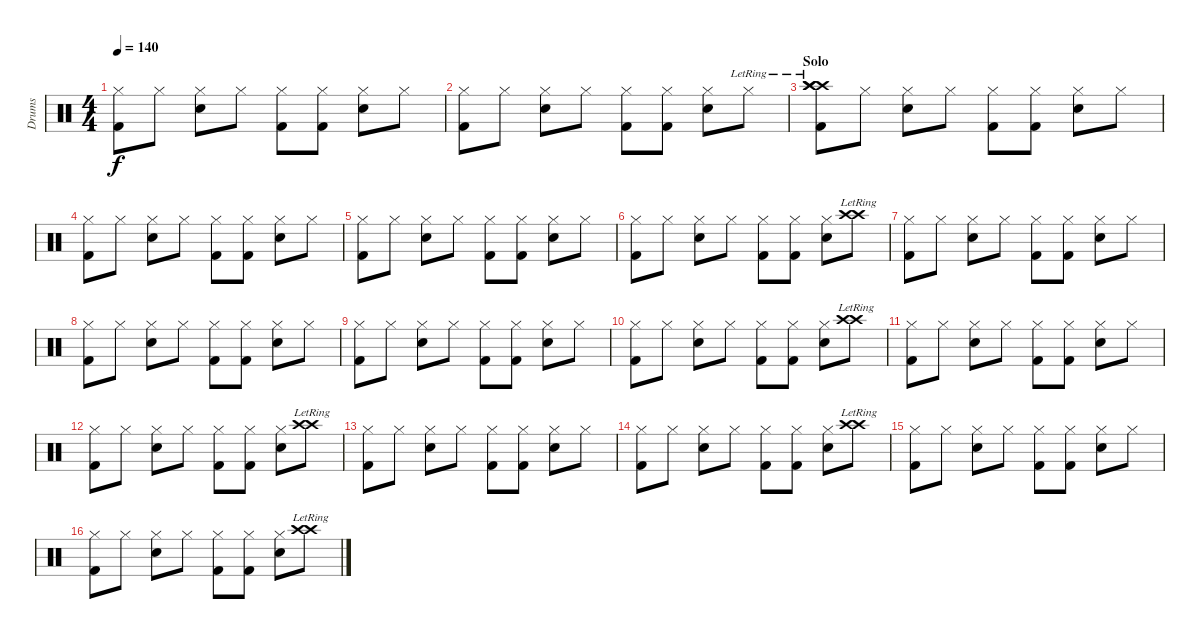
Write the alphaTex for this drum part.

\track ("Drums" "Drums") {instrument percussion}
\staff {score}
\articulation defaults
\ts (4 4)
\tempo 140
\clef neutral
\ks c
("Hi-Hat (closed)" "Kick (hit) 2").8{dy f} "Hi-Hat (closed)".8 ("Hi-Hat (closed)" "Snare (hit) 2").8 "Hi-Hat (closed)".8 ("Hi-Hat (closed)" "Kick (hit) 2").8 ("Hi-Hat (closed)" "Kick (hit) 2").8 ("Hi-Hat (closed)" "Snare (hit) 2").8 "Hi-Hat (closed)".8 |
("Hi-Hat (closed)" "Kick (hit) 2").8 "Hi-Hat (closed)".8 ("Hi-Hat (closed)" "Snare (hit) 2").8 "Hi-Hat (closed)".8 ("Hi-Hat (closed)" "Kick (hit) 2").8 ("Hi-Hat (closed)" "Kick (hit) 2").8 ("Hi-Hat (closed)" "Snare (hit) 2").8 "Hi-Hat (closed)"{lr}.8 |
\section ("" "Solo")
("Crash high (hit)"{lr} "Crash high (hit)"{lr} "Crash high (hit)"{lr} "Kick (hit) 2").8 "Hi-Hat (closed)".8 ("Hi-Hat (closed)" "Snare (hit) 2").8 "Hi-Hat (closed)".8 ("Hi-Hat (closed)" "Kick (hit) 2").8 ("Hi-Hat (closed)" "Kick (hit) 2").8 ("Hi-Hat (closed)" "Snare (hit) 2").8 "Hi-Hat (closed)".8 |
("Hi-Hat (closed)" "Kick (hit) 2").8 "Hi-Hat (closed)".8 ("Hi-Hat (closed)" "Snare (hit) 2").8 "Hi-Hat (closed)".8 ("Hi-Hat (closed)" "Kick (hit) 2").8 ("Hi-Hat (closed)" "Kick (hit) 2").8 ("Hi-Hat (closed)" "Snare (hit) 2").8 "Hi-Hat (closed)".8 |
("Hi-Hat (closed)" "Kick (hit) 2").8 "Hi-Hat (closed)".8 ("Hi-Hat (closed)" "Snare (hit) 2").8 "Hi-Hat (closed)".8 ("Hi-Hat (closed)" "Kick (hit) 2").8 ("Hi-Hat (closed)" "Kick (hit) 2").8 ("Hi-Hat (closed)" "Snare (hit) 2").8 "Hi-Hat (closed)".8 |
("Hi-Hat (closed)" "Kick (hit) 2").8 "Hi-Hat (closed)".8 ("Hi-Hat (closed)" "Snare (hit) 2").8 "Hi-Hat (closed)".8 ("Hi-Hat (closed)" "Kick (hit) 2").8 ("Hi-Hat (closed)" "Kick (hit) 2").8 ("Hi-Hat (closed)" "Snare (hit) 2").8 ("Crash high (hit)"{lr} "Crash high (hit)"{lr}).8 |
("Hi-Hat (closed)" "Kick (hit) 2").8 "Hi-Hat (closed)".8 ("Hi-Hat (closed)" "Snare (hit) 2").8 "Hi-Hat (closed)".8 ("Hi-Hat (closed)" "Kick (hit) 2").8 ("Hi-Hat (closed)" "Kick (hit) 2").8 ("Hi-Hat (closed)" "Snare (hit) 2").8 "Hi-Hat (closed)".8 |
("Hi-Hat (closed)" "Kick (hit) 2").8 "Hi-Hat (closed)".8 ("Hi-Hat (closed)" "Snare (hit) 2").8 "Hi-Hat (closed)".8 ("Hi-Hat (closed)" "Kick (hit) 2").8 ("Hi-Hat (closed)" "Kick (hit) 2").8 ("Hi-Hat (closed)" "Snare (hit) 2").8 "Hi-Hat (closed)".8 |
("Hi-Hat (closed)" "Kick (hit) 2").8 "Hi-Hat (closed)".8 ("Hi-Hat (closed)" "Snare (hit) 2").8 "Hi-Hat (closed)".8 ("Hi-Hat (closed)" "Kick (hit) 2").8 ("Hi-Hat (closed)" "Kick (hit) 2").8 ("Hi-Hat (closed)" "Snare (hit) 2").8 "Hi-Hat (closed)".8 |
("Hi-Hat (closed)" "Kick (hit) 2").8 "Hi-Hat (closed)".8 ("Hi-Hat (closed)" "Snare (hit) 2").8 "Hi-Hat (closed)".8 ("Hi-Hat (closed)" "Kick (hit) 2").8 ("Hi-Hat (closed)" "Kick (hit) 2").8 ("Hi-Hat (closed)" "Snare (hit) 2").8 ("Crash high (hit)"{lr} "Crash high (hit)"{lr}).8 |
("Hi-Hat (closed)" "Kick (hit) 2").8 "Hi-Hat (closed)".8 ("Hi-Hat (closed)" "Snare (hit) 2").8 "Hi-Hat (closed)".8 ("Hi-Hat (closed)" "Kick (hit) 2").8 ("Hi-Hat (closed)" "Kick (hit) 2").8 ("Hi-Hat (closed)" "Snare (hit) 2").8 "Hi-Hat (closed)".8 |
("Hi-Hat (closed)" "Kick (hit) 2").8 "Hi-Hat (closed)".8 ("Hi-Hat (closed)" "Snare (hit) 2").8 "Hi-Hat (closed)".8 ("Hi-Hat (closed)" "Kick (hit) 2").8 ("Hi-Hat (closed)" "Kick (hit) 2").8 ("Hi-Hat (closed)" "Snare (hit) 2").8 ("Crash high (hit)"{lr} "Crash high (hit)"{lr}).8 |
("Hi-Hat (closed)" "Kick (hit) 2").8 "Hi-Hat (closed)".8 ("Hi-Hat (closed)" "Snare (hit) 2").8 "Hi-Hat (closed)".8 ("Hi-Hat (closed)" "Kick (hit) 2").8 ("Hi-Hat (closed)" "Kick (hit) 2").8 ("Hi-Hat (closed)" "Snare (hit) 2").8 "Hi-Hat (closed)".8 |
("Hi-Hat (closed)" "Kick (hit) 2").8 "Hi-Hat (closed)".8 ("Hi-Hat (closed)" "Snare (hit) 2").8 "Hi-Hat (closed)".8 ("Hi-Hat (closed)" "Kick (hit) 2").8 ("Hi-Hat (closed)" "Kick (hit) 2").8 ("Hi-Hat (closed)" "Snare (hit) 2").8 ("Crash high (hit)"{lr} "Crash high (hit)"{lr}).8 |
("Hi-Hat (closed)" "Kick (hit) 2").8 "Hi-Hat (closed)".8 ("Hi-Hat (closed)" "Snare (hit) 2").8 "Hi-Hat (closed)".8 ("Hi-Hat (closed)" "Kick (hit) 2").8 ("Hi-Hat (closed)" "Kick (hit) 2").8 ("Hi-Hat (closed)" "Snare (hit) 2").8 "Hi-Hat (closed)".8 |
("Hi-Hat (closed)" "Kick (hit) 2").8 "Hi-Hat (closed)".8 ("Hi-Hat (closed)" "Snare (hit) 2").8 "Hi-Hat (closed)".8 ("Hi-Hat (closed)" "Kick (hit) 2").8 ("Hi-Hat (closed)" "Kick (hit) 2").8 ("Hi-Hat (closed)" "Snare (hit) 2").8 ("Crash high (hit)"{lr} "Crash high (hit)"{lr}).8
